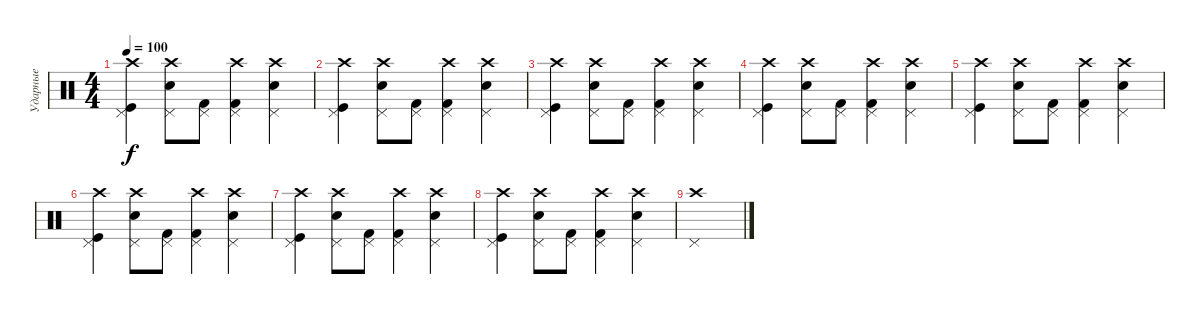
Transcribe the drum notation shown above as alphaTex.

\track ("Ударные" "Ударные") {instrument percussion}
\staff {score}
\articulation defaults
\ts (4 4)
\tempo 100
\clef neutral
\ks c
("Crash high (hit)" "Pedal Hi-Hat (hit)" "Kick (hit)").4{dy f} ("Crash high (hit)" "Pedal Hi-Hat (hit)" "Electric Snare (hit)").8 ("Pedal Hi-Hat (hit)" "Kick (hit) 2").8 ("Crash high (hit)" "Pedal Hi-Hat (hit)" "Kick (hit) 2").4 ("Crash high (hit)" "Pedal Hi-Hat (hit)" "Electric Snare (hit)").4 |
("Crash high (hit)" "Pedal Hi-Hat (hit)" "Kick (hit)").4 ("Crash high (hit)" "Pedal Hi-Hat (hit)" "Electric Snare (hit)").8 ("Pedal Hi-Hat (hit)" "Kick (hit) 2").8 ("Crash high (hit)" "Pedal Hi-Hat (hit)" "Kick (hit) 2").4 ("Crash high (hit)" "Pedal Hi-Hat (hit)" "Electric Snare (hit)").4 |
("Crash high (hit)" "Pedal Hi-Hat (hit)" "Kick (hit)").4 ("Crash high (hit)" "Pedal Hi-Hat (hit)" "Electric Snare (hit)").8 ("Pedal Hi-Hat (hit)" "Kick (hit) 2").8 ("Crash high (hit)" "Pedal Hi-Hat (hit)" "Kick (hit) 2").4 ("Crash high (hit)" "Pedal Hi-Hat (hit)" "Electric Snare (hit)").4 |
("Crash high (hit)" "Pedal Hi-Hat (hit)" "Kick (hit)").4 ("Crash high (hit)" "Pedal Hi-Hat (hit)" "Electric Snare (hit)").8 ("Pedal Hi-Hat (hit)" "Kick (hit) 2").8 ("Crash high (hit)" "Pedal Hi-Hat (hit)" "Kick (hit) 2").4 ("Crash high (hit)" "Pedal Hi-Hat (hit)" "Electric Snare (hit)").4 |
("Crash high (hit)" "Pedal Hi-Hat (hit)" "Kick (hit)").4 ("Crash high (hit)" "Pedal Hi-Hat (hit)" "Electric Snare (hit)").8 ("Pedal Hi-Hat (hit)" "Kick (hit) 2").8 ("Crash high (hit)" "Pedal Hi-Hat (hit)" "Kick (hit) 2").4 ("Crash high (hit)" "Pedal Hi-Hat (hit)" "Electric Snare (hit)").4 |
("Crash high (hit)" "Pedal Hi-Hat (hit)" "Kick (hit)").4 ("Crash high (hit)" "Pedal Hi-Hat (hit)" "Electric Snare (hit)").8 ("Pedal Hi-Hat (hit)" "Kick (hit) 2").8 ("Crash high (hit)" "Pedal Hi-Hat (hit)" "Kick (hit) 2").4 ("Crash high (hit)" "Pedal Hi-Hat (hit)" "Electric Snare (hit)").4 |
("Crash high (hit)" "Pedal Hi-Hat (hit)" "Kick (hit)").4 ("Crash high (hit)" "Pedal Hi-Hat (hit)" "Electric Snare (hit)").8 ("Pedal Hi-Hat (hit)" "Kick (hit) 2").8 ("Crash high (hit)" "Pedal Hi-Hat (hit)" "Kick (hit) 2").4 ("Crash high (hit)" "Pedal Hi-Hat (hit)" "Electric Snare (hit)").4 |
("Crash high (hit)" "Pedal Hi-Hat (hit)" "Kick (hit)").4 ("Crash high (hit)" "Pedal Hi-Hat (hit)" "Electric Snare (hit)").8 ("Pedal Hi-Hat (hit)" "Kick (hit) 2").8 ("Crash high (hit)" "Pedal Hi-Hat (hit)" "Kick (hit) 2").4 ("Crash high (hit)" "Pedal Hi-Hat (hit)" "Electric Snare (hit)").4 |
("Crash high (hit)" "Pedal Hi-Hat (hit)").1
